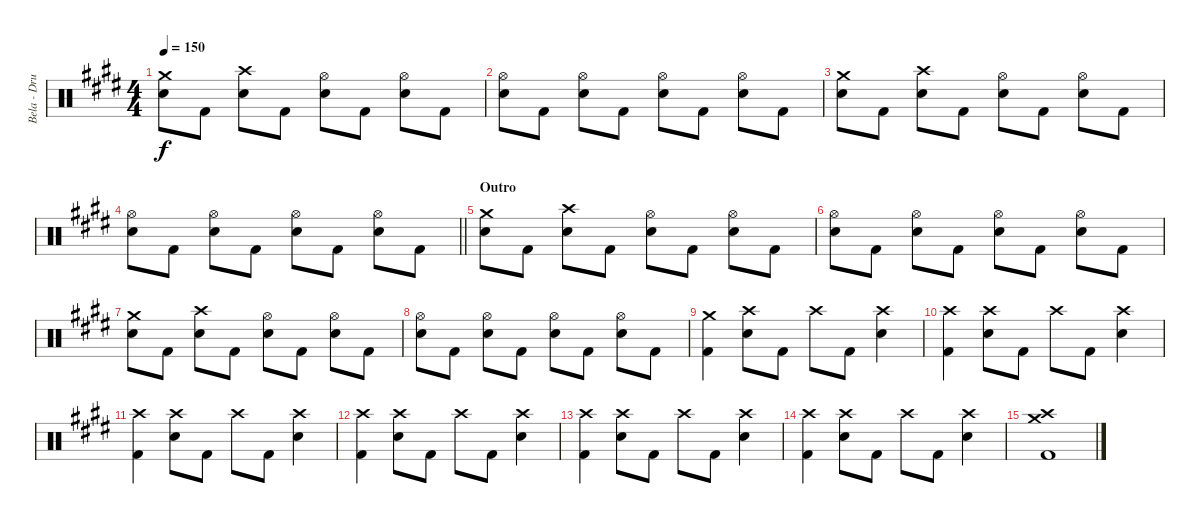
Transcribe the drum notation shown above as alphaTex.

\track ("Bela - Drums" "Bela - Dru") {instrument percussion}
\staff {score}
\articulation defaults
\ts (4 4)
\tempo 150
\clef neutral
\ks e
("Crash medium (hit)" "Electric Snare (hit)").8{dy f} "Kick (hit) 2".8 ("Crash high (hit)" "Electric Snare (hit)").8 "Kick (hit) 2".8 ("Hi-Hat (open)" "Electric Snare (hit)").8 "Kick (hit) 2".8 ("Hi-Hat (open)" "Electric Snare (hit)").8 "Kick (hit) 2".8 |
("Hi-Hat (open)" "Electric Snare (hit)").8 "Kick (hit) 2".8 ("Hi-Hat (open)" "Electric Snare (hit)").8 "Kick (hit) 2".8 ("Hi-Hat (open)" "Electric Snare (hit)").8 "Kick (hit) 2".8 ("Hi-Hat (open)" "Electric Snare (hit)").8 "Kick (hit) 2".8 |
("Crash medium (hit)" "Electric Snare (hit)").8 "Kick (hit) 2".8 ("Crash high (hit)" "Electric Snare (hit)").8 "Kick (hit) 2".8 ("Hi-Hat (open)" "Electric Snare (hit)").8 "Kick (hit) 2".8 ("Hi-Hat (open)" "Electric Snare (hit)").8 "Kick (hit) 2".8 |
\barLineRight lightlight
("Hi-Hat (open)" "Electric Snare (hit)").8 "Kick (hit) 2".8 ("Hi-Hat (open)" "Electric Snare (hit)").8 "Kick (hit) 2".8 ("Hi-Hat (open)" "Electric Snare (hit)").8 "Kick (hit) 2".8 ("Hi-Hat (open)" "Electric Snare (hit)").8 "Kick (hit) 2".8 |
\section ("" "Outro")
("Crash medium (hit)" "Electric Snare (hit)").8 "Kick (hit) 2".8 ("Crash high (hit)" "Electric Snare (hit)").8 "Kick (hit) 2".8 ("Hi-Hat (open)" "Electric Snare (hit)").8 "Kick (hit) 2".8 ("Hi-Hat (open)" "Electric Snare (hit)").8 "Kick (hit) 2".8 |
("Hi-Hat (open)" "Electric Snare (hit)").8 "Kick (hit) 2".8 ("Hi-Hat (open)" "Electric Snare (hit)").8 "Kick (hit) 2".8 ("Hi-Hat (open)" "Electric Snare (hit)").8 "Kick (hit) 2".8 ("Hi-Hat (open)" "Electric Snare (hit)").8 "Kick (hit) 2".8 |
("Crash medium (hit)" "Electric Snare (hit)").8 "Kick (hit) 2".8 ("Crash high (hit)" "Electric Snare (hit)").8 "Kick (hit) 2".8 ("Hi-Hat (open)" "Electric Snare (hit)").8 "Kick (hit) 2".8 ("Hi-Hat (open)" "Electric Snare (hit)").8 "Kick (hit) 2".8 |
("Hi-Hat (open)" "Electric Snare (hit)").8 "Kick (hit) 2".8 ("Hi-Hat (open)" "Electric Snare (hit)").8 "Kick (hit) 2".8 ("Hi-Hat (open)" "Electric Snare (hit)").8 "Kick (hit) 2".8 ("Hi-Hat (open)" "Electric Snare (hit)").8 "Kick (hit) 2".8 |
("Crash medium (hit)" "Kick (hit) 2").4 ("Crash high (hit)" "Electric Snare (hit)").8 "Kick (hit) 2".8 "Crash high (hit)".8 "Kick (hit) 2".8 ("Crash high (hit)" "Electric Snare (hit)").4 |
("Crash high (hit)" "Kick (hit) 2").4 ("Crash high (hit)" "Electric Snare (hit)").8 "Kick (hit) 2".8 "Crash high (hit)".8 "Kick (hit) 2".8 ("Crash high (hit)" "Electric Snare (hit)").4 |
("Crash high (hit)" "Kick (hit) 2").4 ("Crash high (hit)" "Electric Snare (hit)").8 "Kick (hit) 2".8 "Crash high (hit)".8 "Kick (hit) 2".8 ("Crash high (hit)" "Electric Snare (hit)").4 |
("Crash high (hit)" "Kick (hit) 2").4 ("Crash high (hit)" "Electric Snare (hit)").8 "Kick (hit) 2".8 "Crash high (hit)".8 "Kick (hit) 2".8 ("Crash high (hit)" "Electric Snare (hit)").4 |
("Crash high (hit)" "Kick (hit) 2").4 ("Crash high (hit)" "Electric Snare (hit)").8 "Kick (hit) 2".8 "Crash high (hit)".8 "Kick (hit) 2".8 ("Crash high (hit)" "Electric Snare (hit)").4 |
("Crash high (hit)" "Kick (hit) 2").4 ("Crash high (hit)" "Electric Snare (hit)").8 "Kick (hit) 2".8 "Crash high (hit)".8 "Kick (hit) 2".8 ("Crash high (hit)" "Electric Snare (hit)").4 |
("Crash high (hit)" "Crash medium (hit)" "Kick (hit) 2").1
